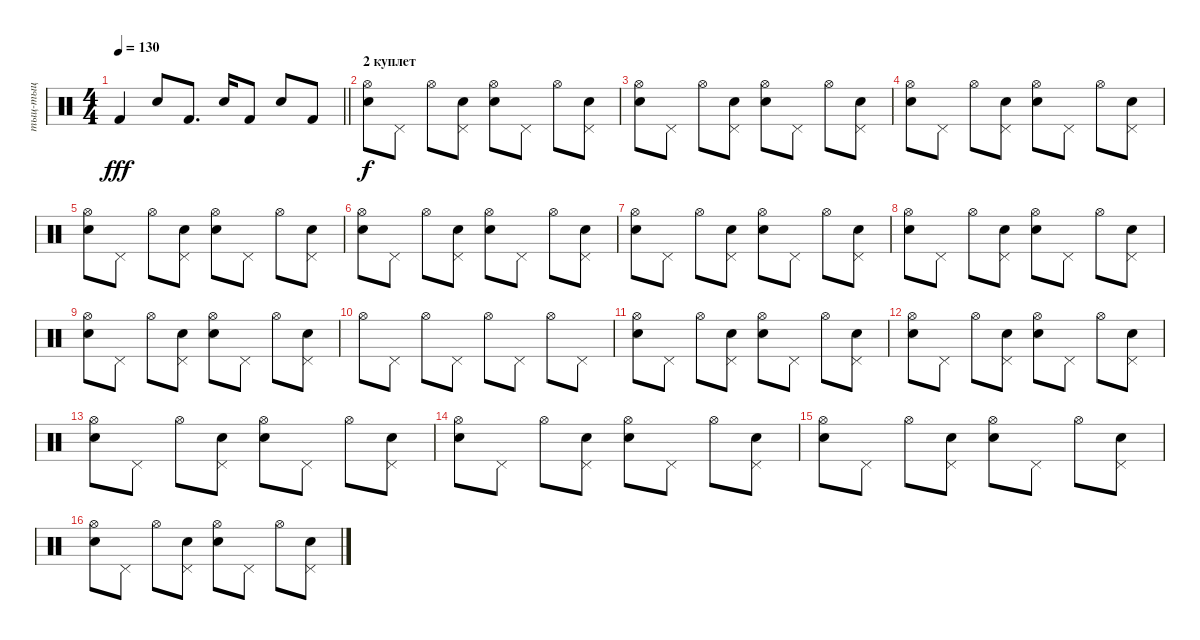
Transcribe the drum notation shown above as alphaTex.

\track ("тыц-тыц" "тыц-тыц") {instrument percussion}
\staff {score}
\articulation defaults
\ts (4 4)
\tempo 130
\clef neutral
\barLineRight lightlight
\ks c "Kick (hit) 2".4{dy fff} "Snare (hit) 2".8 "Kick (hit) 2".8{d} "Snare (hit) 2".16 "Kick (hit) 2".8 "Snare (hit) 2".8 "Kick (hit) 2".8
|
\section ("" "2 куплет")
("Hi-Hat (open)" "Snare (hit) 2").8{dy f} "Pedal Hi-Hat (hit)".8 "Hi-Hat (open)".8 ("Pedal Hi-Hat (hit)" "Snare (hit) 2").8 ("Hi-Hat (open)" "Snare (hit) 2").8 "Pedal Hi-Hat (hit)".8 "Hi-Hat (open)".8 ("Pedal Hi-Hat (hit)" "Snare (hit) 2").8 |
("Hi-Hat (open)" "Snare (hit) 2").8 "Pedal Hi-Hat (hit)".8 "Hi-Hat (open)".8 ("Pedal Hi-Hat (hit)" "Snare (hit) 2").8 ("Hi-Hat (open)" "Snare (hit) 2").8 "Pedal Hi-Hat (hit)".8 "Hi-Hat (open)".8 ("Pedal Hi-Hat (hit)" "Snare (hit) 2").8 |
("Hi-Hat (open)" "Snare (hit) 2").8 "Pedal Hi-Hat (hit)".8 "Hi-Hat (open)".8 ("Pedal Hi-Hat (hit)" "Snare (hit) 2").8 ("Hi-Hat (open)" "Snare (hit) 2").8 "Pedal Hi-Hat (hit)".8 "Hi-Hat (open)".8 ("Pedal Hi-Hat (hit)" "Snare (hit) 2").8 |
("Hi-Hat (open)" "Snare (hit) 2").8 "Pedal Hi-Hat (hit)".8 "Hi-Hat (open)".8 ("Pedal Hi-Hat (hit)" "Snare (hit) 2").8 ("Hi-Hat (open)" "Snare (hit) 2").8 "Pedal Hi-Hat (hit)".8 "Hi-Hat (open)".8 ("Pedal Hi-Hat (hit)" "Snare (hit) 2").8 |
("Hi-Hat (open)" "Snare (hit) 2").8 "Pedal Hi-Hat (hit)".8 "Hi-Hat (open)".8 ("Pedal Hi-Hat (hit)" "Snare (hit) 2").8 ("Hi-Hat (open)" "Snare (hit) 2").8 "Pedal Hi-Hat (hit)".8 "Hi-Hat (open)".8 ("Pedal Hi-Hat (hit)" "Snare (hit) 2").8 |
("Hi-Hat (open)" "Snare (hit) 2").8 "Pedal Hi-Hat (hit)".8 "Hi-Hat (open)".8 ("Pedal Hi-Hat (hit)" "Snare (hit) 2").8 ("Hi-Hat (open)" "Snare (hit) 2").8 "Pedal Hi-Hat (hit)".8 "Hi-Hat (open)".8 ("Pedal Hi-Hat (hit)" "Snare (hit) 2").8 |
("Hi-Hat (open)" "Snare (hit) 2").8 "Pedal Hi-Hat (hit)".8 "Hi-Hat (open)".8 ("Pedal Hi-Hat (hit)" "Snare (hit) 2").8 ("Hi-Hat (open)" "Snare (hit) 2").8 "Pedal Hi-Hat (hit)".8 "Hi-Hat (open)".8 ("Pedal Hi-Hat (hit)" "Snare (hit) 2").8 |
("Hi-Hat (open)" "Snare (hit) 2").8 "Pedal Hi-Hat (hit)".8 "Hi-Hat (open)".8 ("Pedal Hi-Hat (hit)" "Snare (hit) 2").8 ("Hi-Hat (open)" "Snare (hit) 2").8 "Pedal Hi-Hat (hit)".8 "Hi-Hat (open)".8 ("Pedal Hi-Hat (hit)" "Snare (hit) 2").8 |
"Hi-Hat (open)".8 "Pedal Hi-Hat (hit)".8 "Hi-Hat (open)".8 "Pedal Hi-Hat (hit)".8 "Hi-Hat (open)".8 "Pedal Hi-Hat (hit)".8 "Hi-Hat (open)".8 "Pedal Hi-Hat (hit)".8 |
("Hi-Hat (open)" "Snare (hit) 2").8 "Pedal Hi-Hat (hit)".8 "Hi-Hat (open)".8 ("Pedal Hi-Hat (hit)" "Snare (hit) 2").8 ("Hi-Hat (open)" "Snare (hit) 2").8 "Pedal Hi-Hat (hit)".8 "Hi-Hat (open)".8 ("Pedal Hi-Hat (hit)" "Snare (hit) 2").8 |
("Hi-Hat (open)" "Snare (hit) 2").8 "Pedal Hi-Hat (hit)".8 "Hi-Hat (open)".8 ("Pedal Hi-Hat (hit)" "Snare (hit) 2").8 ("Hi-Hat (open)" "Snare (hit) 2").8 "Pedal Hi-Hat (hit)".8 "Hi-Hat (open)".8 ("Pedal Hi-Hat (hit)" "Snare (hit) 2").8 |
("Hi-Hat (open)" "Snare (hit) 2").8 "Pedal Hi-Hat (hit)".8 "Hi-Hat (open)".8 ("Pedal Hi-Hat (hit)" "Snare (hit) 2").8 ("Hi-Hat (open)" "Snare (hit) 2").8 "Pedal Hi-Hat (hit)".8 "Hi-Hat (open)".8 ("Pedal Hi-Hat (hit)" "Snare (hit) 2").8 |
("Hi-Hat (open)" "Snare (hit) 2").8 "Pedal Hi-Hat (hit)".8 "Hi-Hat (open)".8 ("Pedal Hi-Hat (hit)" "Snare (hit) 2").8 ("Hi-Hat (open)" "Snare (hit) 2").8 "Pedal Hi-Hat (hit)".8 "Hi-Hat (open)".8 ("Pedal Hi-Hat (hit)" "Snare (hit) 2").8 |
("Hi-Hat (open)" "Snare (hit) 2").8 "Pedal Hi-Hat (hit)".8 "Hi-Hat (open)".8 ("Pedal Hi-Hat (hit)" "Snare (hit) 2").8 ("Hi-Hat (open)" "Snare (hit) 2").8 "Pedal Hi-Hat (hit)".8 "Hi-Hat (open)".8 ("Pedal Hi-Hat (hit)" "Snare (hit) 2").8 |
("Hi-Hat (open)" "Snare (hit) 2").8 "Pedal Hi-Hat (hit)".8 "Hi-Hat (open)".8 ("Pedal Hi-Hat (hit)" "Snare (hit) 2").8 ("Hi-Hat (open)" "Snare (hit) 2").8 "Pedal Hi-Hat (hit)".8 "Hi-Hat (open)".8 ("Pedal Hi-Hat (hit)" "Snare (hit) 2").8
